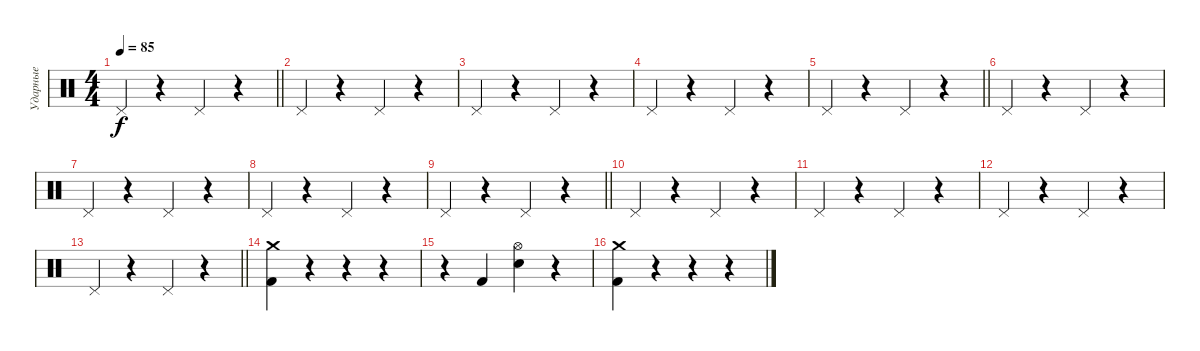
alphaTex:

\track ("Ударные" "Ударные") {mute instrument percussion}
\staff {score}
\articulation defaults
\ts (4 4)
\tempo 85
\clef neutral
\barLineRight lightlight
\ks c "Pedal Hi-Hat (hit)".4{dy f}
r.4 "Pedal Hi-Hat (hit)".4 r.4 |
"Pedal Hi-Hat (hit)".4 r.4 "Pedal Hi-Hat (hit)".4 r.4 |
"Pedal Hi-Hat (hit)".4 r.4 "Pedal Hi-Hat (hit)".4 r.4 |
"Pedal Hi-Hat (hit)".4 r.4 "Pedal Hi-Hat (hit)".4 r.4 |
\barLineRight lightlight "Pedal Hi-Hat (hit)".4
r.4 "Pedal Hi-Hat (hit)".4 r.4 |
"Pedal Hi-Hat (hit)".4 r.4 "Pedal Hi-Hat (hit)".4 r.4 |
"Pedal Hi-Hat (hit)".4 r.4 "Pedal Hi-Hat (hit)".4 r.4 |
"Pedal Hi-Hat (hit)".4 r.4 "Pedal Hi-Hat (hit)".4 r.4 |
\barLineRight lightlight "Pedal Hi-Hat (hit)".4
r.4 "Pedal Hi-Hat (hit)".4 r.4 |
"Pedal Hi-Hat (hit)".4 r.4 "Pedal Hi-Hat (hit)".4 r.4 |
"Pedal Hi-Hat (hit)".4 r.4 "Pedal Hi-Hat (hit)".4 r.4 |
"Pedal Hi-Hat (hit)".4 r.4 "Pedal Hi-Hat (hit)".4 r.4 |
\barLineRight lightlight "Pedal Hi-Hat (hit)".4
r.4 "Pedal Hi-Hat (hit)".4 r.4 |
("Crash medium (hit)" "Kick (hit) 2").4 r.4 r.4 r.4 |
r.4 "Kick (hit) 2".4 ("Hi-Hat (open)" "Electric Snare (hit)").4 r.4 |
("Crash medium (hit)" "Kick (hit) 2").4 r.4 r.4 r.4
